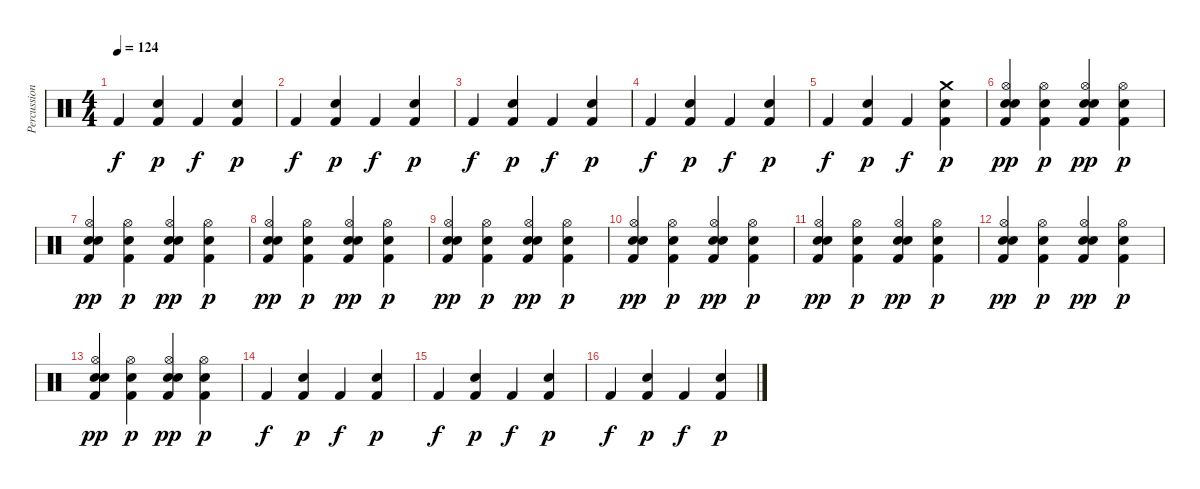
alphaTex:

\track ("Percussion" "Percussion") {instrument percussion}
\staff {score}
\articulation defaults
\ts (4 4)
\tempo 124
\clef neutral
\ks c "Kick (hit) 2".4{dy f}
("Snare (hit) 2" "Kick (hit) 2").4{dy p} "Kick (hit) 2".4{dy f} ("Snare (hit) 2" "Kick (hit) 2").4{dy p} |
"Kick (hit) 2".4{dy f} ("Snare (hit) 2" "Kick (hit) 2").4{dy p} "Kick (hit) 2".4{dy f} ("Snare (hit) 2" "Kick (hit) 2").4{dy p} |
"Kick (hit) 2".4{dy f} ("Snare (hit) 2" "Kick (hit) 2").4{dy p} "Kick (hit) 2".4{dy f} ("Snare (hit) 2" "Kick (hit) 2").4{dy p} |
"Kick (hit) 2".4{dy f} ("Snare (hit) 2" "Kick (hit) 2").4{dy p} "Kick (hit) 2".4{dy f} ("Snare (hit) 2" "Kick (hit) 2").4{dy p} |
"Kick (hit) 2".4{dy f} ("Snare (hit) 2" "Kick (hit) 2").4{dy p} "Kick (hit) 2".4{dy f} ("Crash medium (hit)" "Snare (hit) 2" "Kick (hit) 2").4{dy p} |
("Hi-Hat (open)" "Electric Snare (hit)" "Snare (hit) 2" "Kick (hit) 2").4{dy pp} ("Hi-Hat (open)" "Snare (hit) 2" "Kick (hit) 2").4{dy p} ("Hi-Hat (open)" "Electric Snare (hit)" "Snare (hit) 2" "Kick (hit) 2").4{dy pp} ("Hi-Hat (open)" "Snare (hit) 2" "Kick (hit) 2").4{dy p} |
("Hi-Hat (open)" "Electric Snare (hit)" "Snare (hit) 2" "Kick (hit) 2").4{dy pp} ("Hi-Hat (open)" "Snare (hit) 2" "Kick (hit) 2").4{dy p} ("Hi-Hat (open)" "Electric Snare (hit)" "Snare (hit) 2" "Kick (hit) 2").4{dy pp} ("Hi-Hat (open)" "Snare (hit) 2" "Kick (hit) 2").4{dy p} |
("Hi-Hat (open)" "Electric Snare (hit)" "Snare (hit) 2" "Kick (hit) 2").4{dy pp} ("Hi-Hat (open)" "Snare (hit) 2" "Kick (hit) 2").4{dy p} ("Hi-Hat (open)" "Electric Snare (hit)" "Snare (hit) 2" "Kick (hit) 2").4{dy pp} ("Hi-Hat (open)" "Snare (hit) 2" "Kick (hit) 2").4{dy p} |
("Hi-Hat (open)" "Electric Snare (hit)" "Snare (hit) 2" "Kick (hit) 2").4{dy pp} ("Hi-Hat (open)" "Snare (hit) 2" "Kick (hit) 2").4{dy p} ("Hi-Hat (open)" "Electric Snare (hit)" "Snare (hit) 2" "Kick (hit) 2").4{dy pp} ("Hi-Hat (open)" "Snare (hit) 2" "Kick (hit) 2").4{dy p} |
("Hi-Hat (open)" "Electric Snare (hit)" "Snare (hit) 2" "Kick (hit) 2").4{dy pp} ("Hi-Hat (open)" "Snare (hit) 2" "Kick (hit) 2").4{dy p} ("Hi-Hat (open)" "Electric Snare (hit)" "Snare (hit) 2" "Kick (hit) 2").4{dy pp} ("Hi-Hat (open)" "Snare (hit) 2" "Kick (hit) 2").4{dy p} |
("Hi-Hat (open)" "Electric Snare (hit)" "Snare (hit) 2" "Kick (hit) 2").4{dy pp} ("Hi-Hat (open)" "Snare (hit) 2" "Kick (hit) 2").4{dy p} ("Hi-Hat (open)" "Electric Snare (hit)" "Snare (hit) 2" "Kick (hit) 2").4{dy pp} ("Hi-Hat (open)" "Snare (hit) 2" "Kick (hit) 2").4{dy p} |
("Hi-Hat (open)" "Electric Snare (hit)" "Snare (hit) 2" "Kick (hit) 2").4{dy pp} ("Hi-Hat (open)" "Snare (hit) 2" "Kick (hit) 2").4{dy p} ("Hi-Hat (open)" "Electric Snare (hit)" "Snare (hit) 2" "Kick (hit) 2").4{dy pp} ("Hi-Hat (open)" "Snare (hit) 2" "Kick (hit) 2").4{dy p} |
("Hi-Hat (open)" "Electric Snare (hit)" "Snare (hit) 2" "Kick (hit) 2").4{dy pp} ("Hi-Hat (open)" "Snare (hit) 2" "Kick (hit) 2").4{dy p} ("Hi-Hat (open)" "Electric Snare (hit)" "Snare (hit) 2" "Kick (hit) 2").4{dy pp} ("Hi-Hat (open)" "Snare (hit) 2" "Kick (hit) 2").4{dy p} |
"Kick (hit) 2".4{dy f} ("Snare (hit) 2" "Kick (hit) 2").4{dy p} "Kick (hit) 2".4{dy f} ("Snare (hit) 2" "Kick (hit) 2").4{dy p} |
"Kick (hit) 2".4{dy f} ("Snare (hit) 2" "Kick (hit) 2").4{dy p} "Kick (hit) 2".4{dy f} ("Snare (hit) 2" "Kick (hit) 2").4{dy p} |
"Kick (hit) 2".4{dy f} ("Snare (hit) 2" "Kick (hit) 2").4{dy p} "Kick (hit) 2".4{dy f} ("Snare (hit) 2" "Kick (hit) 2").4{dy p}
